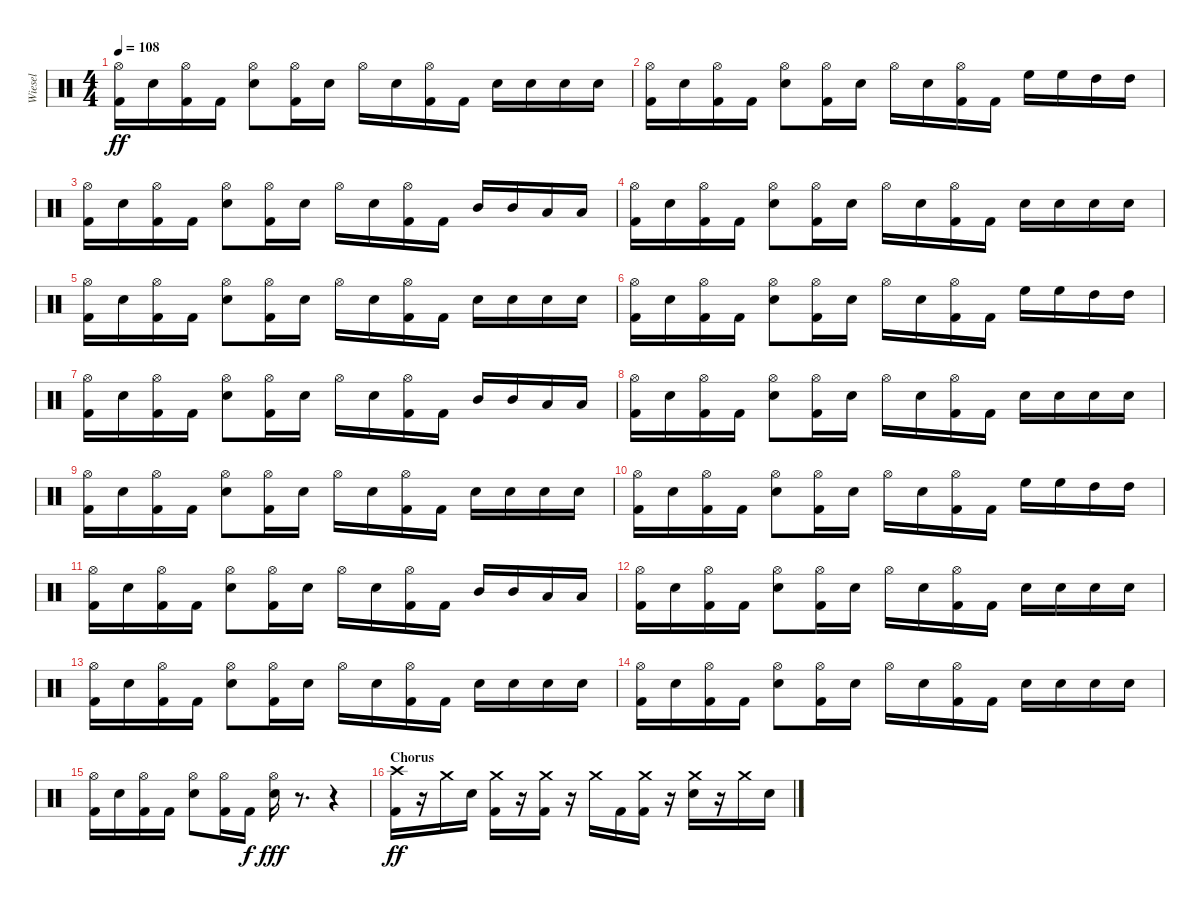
\track ("Wiesel" "Wiesel") {instrument percussion}
\staff {score}
\articulation defaults
\ts (4 4)
\tempo 108
\clef neutral
\ks c
("Hi-Hat (open)" "Kick (hit) 2").16{dy ff} "Electric Snare (hit)".16 ("Hi-Hat (open)" "Kick (hit) 2").16 "Kick (hit) 2".16 ("Hi-Hat (open)" "Electric Snare (hit)").8 ("Hi-Hat (open)" "Kick (hit) 2").16 "Electric Snare (hit)".16 "Hi-Hat (open)".16 "Electric Snare (hit)".16 ("Hi-Hat (open)" "Kick (hit) 2").16 "Kick (hit) 2".16 "Electric Snare (hit)".16 "Electric Snare (hit)".16 "Electric Snare (hit)".16 "Electric Snare (hit)".16 |
("Hi-Hat (open)" "Kick (hit) 2").16 "Electric Snare (hit)".16 ("Hi-Hat (open)" "Kick (hit) 2").16 "Kick (hit) 2".16 ("Hi-Hat (open)" "Electric Snare (hit)").8 ("Hi-Hat (open)" "Kick (hit) 2").16 "Electric Snare (hit)".16 "Hi-Hat (open)".16 "Electric Snare (hit)".16 ("Hi-Hat (open)" "Kick (hit) 2").16 "Kick (hit) 2".16 "High Floor Tom (hit)".16 "High Floor Tom (hit)".16 "High Tom (hit)".16 "High Tom (hit)".16 |
("Hi-Hat (open)" "Kick (hit) 2").16 "Electric Snare (hit)".16 ("Hi-Hat (open)" "Kick (hit) 2").16 "Kick (hit) 2".16 ("Hi-Hat (open)" "Electric Snare (hit)").8 ("Hi-Hat (open)" "Kick (hit) 2").16 "Electric Snare (hit)".16 "Hi-Hat (open)".16 "Electric Snare (hit)".16 ("Hi-Hat (open)" "Kick (hit) 2").16 "Kick (hit) 2".16 "Mid Tom (hit)".16 "Mid Tom (hit)".16 "Low Tom (hit)".16 "Low Tom (hit)".16 |
("Hi-Hat (open)" "Kick (hit) 2").16 "Electric Snare (hit)".16 ("Hi-Hat (open)" "Kick (hit) 2").16 "Kick (hit) 2".16 ("Hi-Hat (open)" "Electric Snare (hit)").8 ("Hi-Hat (open)" "Kick (hit) 2").16 "Electric Snare (hit)".16 "Hi-Hat (open)".16 "Electric Snare (hit)".16 ("Hi-Hat (open)" "Kick (hit) 2").16 "Kick (hit) 2".16 "Electric Snare (hit)".16 "Electric Snare (hit)".16 "Electric Snare (hit)".16 "Electric Snare (hit)".16 |
("Hi-Hat (open)" "Kick (hit) 2").16 "Electric Snare (hit)".16 ("Hi-Hat (open)" "Kick (hit) 2").16 "Kick (hit) 2".16 ("Hi-Hat (open)" "Electric Snare (hit)").8 ("Hi-Hat (open)" "Kick (hit) 2").16 "Electric Snare (hit)".16 "Hi-Hat (open)".16 "Electric Snare (hit)".16 ("Hi-Hat (open)" "Kick (hit) 2").16 "Kick (hit) 2".16 "Electric Snare (hit)".16 "Electric Snare (hit)".16 "Electric Snare (hit)".16 "Electric Snare (hit)".16 |
("Hi-Hat (open)" "Kick (hit) 2").16 "Electric Snare (hit)".16 ("Hi-Hat (open)" "Kick (hit) 2").16 "Kick (hit) 2".16 ("Hi-Hat (open)" "Electric Snare (hit)").8 ("Hi-Hat (open)" "Kick (hit) 2").16 "Electric Snare (hit)".16 "Hi-Hat (open)".16 "Electric Snare (hit)".16 ("Hi-Hat (open)" "Kick (hit) 2").16 "Kick (hit) 2".16 "High Floor Tom (hit)".16 "High Floor Tom (hit)".16 "High Tom (hit)".16 "High Tom (hit)".16 |
("Hi-Hat (open)" "Kick (hit) 2").16 "Electric Snare (hit)".16 ("Hi-Hat (open)" "Kick (hit) 2").16 "Kick (hit) 2".16 ("Hi-Hat (open)" "Electric Snare (hit)").8 ("Hi-Hat (open)" "Kick (hit) 2").16 "Electric Snare (hit)".16 "Hi-Hat (open)".16 "Electric Snare (hit)".16 ("Hi-Hat (open)" "Kick (hit) 2").16 "Kick (hit) 2".16 "Mid Tom (hit)".16 "Mid Tom (hit)".16 "Low Tom (hit)".16 "Low Tom (hit)".16 |
("Hi-Hat (open)" "Kick (hit) 2").16 "Electric Snare (hit)".16 ("Hi-Hat (open)" "Kick (hit) 2").16 "Kick (hit) 2".16 ("Hi-Hat (open)" "Electric Snare (hit)").8 ("Hi-Hat (open)" "Kick (hit) 2").16 "Electric Snare (hit)".16 "Hi-Hat (open)".16 "Electric Snare (hit)".16 ("Hi-Hat (open)" "Kick (hit) 2").16 "Kick (hit) 2".16 "Electric Snare (hit)".16 "Electric Snare (hit)".16 "Electric Snare (hit)".16 "Electric Snare (hit)".16 |
("Hi-Hat (open)" "Kick (hit) 2").16 "Electric Snare (hit)".16 ("Hi-Hat (open)" "Kick (hit) 2").16 "Kick (hit) 2".16 ("Hi-Hat (open)" "Electric Snare (hit)").8 ("Hi-Hat (open)" "Kick (hit) 2").16 "Electric Snare (hit)".16 "Hi-Hat (open)".16 "Electric Snare (hit)".16 ("Hi-Hat (open)" "Kick (hit) 2").16 "Kick (hit) 2".16 "Electric Snare (hit)".16 "Electric Snare (hit)".16 "Electric Snare (hit)".16 "Electric Snare (hit)".16 |
("Hi-Hat (open)" "Kick (hit) 2").16 "Electric Snare (hit)".16 ("Hi-Hat (open)" "Kick (hit) 2").16 "Kick (hit) 2".16 ("Hi-Hat (open)" "Electric Snare (hit)").8 ("Hi-Hat (open)" "Kick (hit) 2").16 "Electric Snare (hit)".16 "Hi-Hat (open)".16 "Electric Snare (hit)".16 ("Hi-Hat (open)" "Kick (hit) 2").16 "Kick (hit) 2".16 "High Floor Tom (hit)".16 "High Floor Tom (hit)".16 "High Tom (hit)".16 "High Tom (hit)".16 |
("Hi-Hat (open)" "Kick (hit) 2").16 "Electric Snare (hit)".16 ("Hi-Hat (open)" "Kick (hit) 2").16 "Kick (hit) 2".16 ("Hi-Hat (open)" "Electric Snare (hit)").8 ("Hi-Hat (open)" "Kick (hit) 2").16 "Electric Snare (hit)".16 "Hi-Hat (open)".16 "Electric Snare (hit)".16 ("Hi-Hat (open)" "Kick (hit) 2").16 "Kick (hit) 2".16 "Mid Tom (hit)".16 "Mid Tom (hit)".16 "Low Tom (hit)".16 "Low Tom (hit)".16 |
("Hi-Hat (open)" "Kick (hit) 2").16 "Electric Snare (hit)".16 ("Hi-Hat (open)" "Kick (hit) 2").16 "Kick (hit) 2".16 ("Hi-Hat (open)" "Electric Snare (hit)").8 ("Hi-Hat (open)" "Kick (hit) 2").16 "Electric Snare (hit)".16 "Hi-Hat (open)".16 "Electric Snare (hit)".16 ("Hi-Hat (open)" "Kick (hit) 2").16 "Kick (hit) 2".16 "Electric Snare (hit)".16 "Electric Snare (hit)".16 "Electric Snare (hit)".16 "Electric Snare (hit)".16 |
("Hi-Hat (open)" "Kick (hit) 2").16 "Electric Snare (hit)".16 ("Hi-Hat (open)" "Kick (hit) 2").16 "Kick (hit) 2".16 ("Hi-Hat (open)" "Electric Snare (hit)").8 ("Hi-Hat (open)" "Kick (hit) 2").16 "Electric Snare (hit)".16 "Hi-Hat (open)".16 "Electric Snare (hit)".16 ("Hi-Hat (open)" "Kick (hit) 2").16 "Kick (hit) 2".16 "Electric Snare (hit)".16 "Electric Snare (hit)".16 "Electric Snare (hit)".16 "Electric Snare (hit)".16 |
("Hi-Hat (open)" "Kick (hit) 2").16 "Electric Snare (hit)".16 ("Hi-Hat (open)" "Kick (hit) 2").16 "Kick (hit) 2".16 ("Hi-Hat (open)" "Electric Snare (hit)").8 ("Hi-Hat (open)" "Kick (hit) 2").16 "Electric Snare (hit)".16 "Hi-Hat (open)".16 "Electric Snare (hit)".16 ("Hi-Hat (open)" "Kick (hit) 2").16 "Kick (hit) 2".16 "Electric Snare (hit)".16 "Electric Snare (hit)".16 "Electric Snare (hit)".16 "Electric Snare (hit)".16 |
("Hi-Hat (open)" "Kick (hit) 2").16 "Electric Snare (hit)".16 ("Hi-Hat (open)" "Kick (hit) 2").16 "Kick (hit) 2".16 ("Hi-Hat (open)" "Electric Snare (hit)").8 ("Hi-Hat (open)" "Kick (hit) 2").16 "Kick (hit) 2".16{dy f} ("Hi-Hat (open)" "Electric Snare (hit)").16{dy fff} r.8{d} r.4 |
\section ("" "Chorus")
("Crash high (hit)" "Kick (hit) 2").16{dy ff} r.16 "Crash medium (hit)".16 "Electric Snare (hit)".16 ("Crash medium (hit)" "Kick (hit) 2").16 r.16 ("Crash medium (hit)" "Kick (hit) 2").16 r.16 "Crash medium (hit)".16 "Kick (hit) 2".16 ("Crash medium (hit)" "Kick (hit) 2").16 r.16 ("Crash medium (hit)" "Electric Snare (hit)").16 r.16 "Crash medium (hit)".16 "Electric Snare (hit)".16
